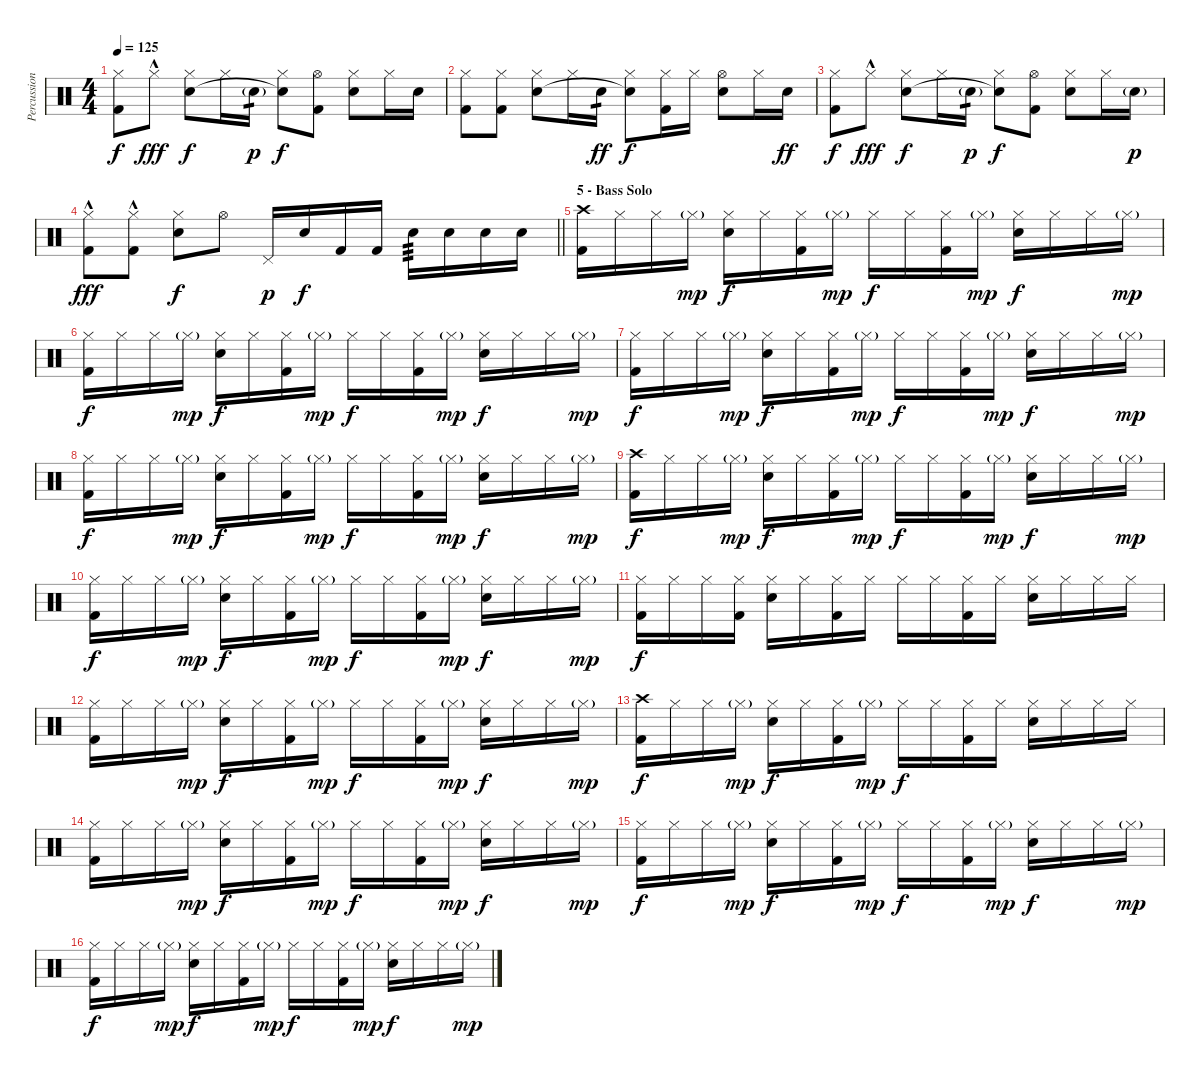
\track ("Percussion" "Percussion") {instrument percussion}
\staff {score}
\articulation defaults
\ts (4 4)
\tempo 125
\clef neutral
\ks c
("Hi-Hat (closed)" "Kick (hit) 2").8{dy f} "Hi-Hat (closed)"{hac}.8{dy fff} ("Hi-Hat (closed)" "Snare (hit) 2").8{dy f} "Hi-Hat (closed)".16 "Snare (hit) 2"{g}.16{tp 1 dy p} ("Hi-Hat (closed)" "Snare (hit)"{t}).8{dy f} ("Hi-Hat (open)" "Kick (hit) 2").8 ("Hi-Hat (closed)" "Snare (hit) 2").8 "Hi-Hat (closed)".16 "Snare (hit) 2".16 |
("Hi-Hat (closed)" "Kick (hit) 2").8 ("Hi-Hat (closed)" "Kick (hit) 2").8 ("Hi-Hat (closed)" "Snare (hit) 2").8 "Hi-Hat (closed)".16 "Snare (hit) 2".16{tp 1 dy ff} ("Hi-Hat (closed)" "Snare (hit)"{t}).8{dy f} ("Hi-Hat (closed)" "Kick (hit) 2").16 "Hi-Hat (closed)".16 ("Hi-Hat (open)" "Snare (hit) 2").8 "Hi-Hat (closed)".16 "Snare (hit) 2".16{dy ff} |
("Hi-Hat (closed)" "Kick (hit) 2").8{dy f} "Hi-Hat (closed)"{hac}.8{dy fff} ("Hi-Hat (closed)" "Snare (hit) 2").8{dy f} "Hi-Hat (closed)".16 "Snare (hit) 2"{g}.16{tp 1 dy p} ("Hi-Hat (closed)" "Snare (hit)"{t}).8{dy f} ("Hi-Hat (open)" "Kick (hit) 2").8 ("Hi-Hat (closed)" "Snare (hit) 2").8 "Hi-Hat (closed)".16 "Snare (hit) 2"{g}.16{dy p} |
\barLineRight lightlight
("Hi-Hat (closed)"{hac} "Kick (hit) 2").8{dy fff} ("Hi-Hat (closed)"{hac} "Kick (hit) 2").8 ("Hi-Hat (closed)" "Snare (hit) 2").8{dy f} "Hi-Hat (open)".8 "Pedal Hi-Hat (hit)".16{dy p} "Snare (hit) 2".16{dy f} "Kick (hit) 2".16 "Kick (hit) 2".16 "Snare (hit) 2".16{tp 3} "Snare (hit) 2".16 "Snare (hit) 2".16 "Snare (hit) 2".16 |
\section ("" "5 - Bass Solo")
("Crash high (hit)" "Kick (hit) 2").16 "Hi-Hat (closed)".16 "Hi-Hat (closed)".16 "Hi-Hat (closed)"{g}.16{dy mp} ("Hi-Hat (closed)" "Snare (hit) 2").16{dy f} "Hi-Hat (closed)".16 ("Hi-Hat (closed)" "Kick (hit) 2").16 "Hi-Hat (closed)"{g}.16{dy mp} "Hi-Hat (closed)".16{dy f} "Hi-Hat (closed)".16 ("Hi-Hat (closed)" "Kick (hit) 2").16 "Hi-Hat (closed)"{g}.16{dy mp} ("Hi-Hat (closed)" "Snare (hit) 2").16{dy f} "Hi-Hat (closed)".16 "Hi-Hat (closed)".16 "Hi-Hat (closed)"{g}.16{dy mp} |
("Hi-Hat (closed)" "Kick (hit) 2").16{dy f} "Hi-Hat (closed)".16 "Hi-Hat (closed)".16 "Hi-Hat (closed)"{g}.16{dy mp} ("Hi-Hat (closed)" "Snare (hit) 2").16{dy f} "Hi-Hat (closed)".16 ("Hi-Hat (closed)" "Kick (hit) 2").16 "Hi-Hat (closed)"{g}.16{dy mp} "Hi-Hat (closed)".16{dy f} "Hi-Hat (closed)".16 ("Hi-Hat (closed)" "Kick (hit) 2").16 "Hi-Hat (closed)"{g}.16{dy mp} ("Hi-Hat (closed)" "Snare (hit) 2").16{dy f} "Hi-Hat (closed)".16 "Hi-Hat (closed)".16 "Hi-Hat (closed)"{g}.16{dy mp} |
("Hi-Hat (closed)" "Kick (hit) 2").16{dy f} "Hi-Hat (closed)".16 "Hi-Hat (closed)".16 "Hi-Hat (closed)"{g}.16{dy mp} ("Hi-Hat (closed)" "Snare (hit) 2").16{dy f} "Hi-Hat (closed)".16 ("Hi-Hat (closed)" "Kick (hit) 2").16 "Hi-Hat (closed)"{g}.16{dy mp} "Hi-Hat (closed)".16{dy f} "Hi-Hat (closed)".16 ("Hi-Hat (closed)" "Kick (hit) 2").16 "Hi-Hat (closed)"{g}.16{dy mp} ("Hi-Hat (closed)" "Snare (hit) 2").16{dy f} "Hi-Hat (closed)".16 "Hi-Hat (closed)".16 "Hi-Hat (closed)"{g}.16{dy mp} |
("Hi-Hat (closed)" "Kick (hit) 2").16{dy f} "Hi-Hat (closed)".16 "Hi-Hat (closed)".16 "Hi-Hat (closed)"{g}.16{dy mp} ("Hi-Hat (closed)" "Snare (hit) 2").16{dy f} "Hi-Hat (closed)".16 ("Hi-Hat (closed)" "Kick (hit) 2").16 "Hi-Hat (closed)"{g}.16{dy mp} "Hi-Hat (closed)".16{dy f} "Hi-Hat (closed)".16 ("Hi-Hat (closed)" "Kick (hit) 2").16 "Hi-Hat (closed)"{g}.16{dy mp} ("Hi-Hat (closed)" "Snare (hit) 2").16{dy f} "Hi-Hat (closed)".16 "Hi-Hat (closed)".16 "Hi-Hat (closed)"{g}.16{dy mp} |
("Crash high (hit)" "Kick (hit) 2").16{dy f} "Hi-Hat (closed)".16 "Hi-Hat (closed)".16 "Hi-Hat (closed)"{g}.16{dy mp} ("Hi-Hat (closed)" "Snare (hit) 2").16{dy f} "Hi-Hat (closed)".16 ("Hi-Hat (closed)" "Kick (hit) 2").16 "Hi-Hat (closed)"{g}.16{dy mp} "Hi-Hat (closed)".16{dy f} "Hi-Hat (closed)".16 ("Hi-Hat (closed)" "Kick (hit) 2").16 "Hi-Hat (closed)"{g}.16{dy mp} ("Hi-Hat (closed)" "Snare (hit) 2").16{dy f} "Hi-Hat (closed)".16 "Hi-Hat (closed)".16 "Hi-Hat (closed)"{g}.16{dy mp} |
("Hi-Hat (closed)" "Kick (hit) 2").16{dy f} "Hi-Hat (closed)".16 "Hi-Hat (closed)".16 "Hi-Hat (closed)"{g}.16{dy mp} ("Hi-Hat (closed)" "Snare (hit) 2").16{dy f} "Hi-Hat (closed)".16 ("Hi-Hat (closed)" "Kick (hit) 2").16 "Hi-Hat (closed)"{g}.16{dy mp} "Hi-Hat (closed)".16{dy f} "Hi-Hat (closed)".16 ("Hi-Hat (closed)" "Kick (hit) 2").16 "Hi-Hat (closed)"{g}.16{dy mp} ("Hi-Hat (closed)" "Snare (hit) 2").16{dy f} "Hi-Hat (closed)".16 "Hi-Hat (closed)".16 "Hi-Hat (closed)"{g}.16{dy mp} |
("Hi-Hat (closed)" "Kick (hit) 2").16{dy f} "Hi-Hat (closed)".16 "Hi-Hat (closed)".16 ("Hi-Hat (closed)" "Kick (hit) 2").16 ("Hi-Hat (closed)" "Snare (hit) 2").16 "Hi-Hat (closed)".16 ("Hi-Hat (closed)" "Kick (hit) 2").16 "Hi-Hat (closed)".16 "Hi-Hat (closed)".16 "Hi-Hat (closed)".16 ("Hi-Hat (closed)" "Kick (hit) 2").16 "Hi-Hat (closed)".16 ("Hi-Hat (closed)" "Snare (hit) 2").16 "Hi-Hat (closed)".16 "Hi-Hat (closed)".16 "Hi-Hat (closed)".16 |
("Hi-Hat (closed)" "Kick (hit) 2").16 "Hi-Hat (closed)".16 "Hi-Hat (closed)".16 "Hi-Hat (closed)"{g}.16{dy mp} ("Hi-Hat (closed)" "Snare (hit) 2").16{dy f} "Hi-Hat (closed)".16 ("Hi-Hat (closed)" "Kick (hit) 2").16 "Hi-Hat (closed)"{g}.16{dy mp} "Hi-Hat (closed)".16{dy f} "Hi-Hat (closed)".16 ("Hi-Hat (closed)" "Kick (hit) 2").16 "Hi-Hat (closed)"{g}.16{dy mp} ("Hi-Hat (closed)" "Snare (hit) 2").16{dy f} "Hi-Hat (closed)".16 "Hi-Hat (closed)".16 "Hi-Hat (closed)"{g}.16{dy mp} |
("Crash high (hit)" "Kick (hit) 2").16{dy f} "Hi-Hat (closed)".16 "Hi-Hat (closed)".16 "Hi-Hat (closed)"{g}.16{dy mp} ("Hi-Hat (closed)" "Snare (hit) 2").16{dy f} "Hi-Hat (closed)".16 ("Hi-Hat (closed)" "Kick (hit) 2").16 "Hi-Hat (closed)"{g}.16{dy mp} "Hi-Hat (closed)".16{dy f} "Hi-Hat (closed)".16 ("Hi-Hat (closed)" "Kick (hit) 2").16 "Hi-Hat (closed)".16 ("Hi-Hat (closed)" "Snare (hit) 2").16 "Hi-Hat (closed)".16 "Hi-Hat (closed)".16 "Hi-Hat (closed)".16 |
("Hi-Hat (closed)" "Kick (hit) 2").16 "Hi-Hat (closed)".16 "Hi-Hat (closed)".16 "Hi-Hat (closed)"{g}.16{dy mp} ("Hi-Hat (closed)" "Snare (hit) 2").16{dy f} "Hi-Hat (closed)".16 ("Hi-Hat (closed)" "Kick (hit) 2").16 "Hi-Hat (closed)"{g}.16{dy mp} "Hi-Hat (closed)".16{dy f} "Hi-Hat (closed)".16 ("Hi-Hat (closed)" "Kick (hit) 2").16 "Hi-Hat (closed)"{g}.16{dy mp} ("Hi-Hat (closed)" "Snare (hit) 2").16{dy f} "Hi-Hat (closed)".16 "Hi-Hat (closed)".16 "Hi-Hat (closed)"{g}.16{dy mp} |
("Hi-Hat (closed)" "Kick (hit) 2").16{dy f} "Hi-Hat (closed)".16 "Hi-Hat (closed)".16 "Hi-Hat (closed)"{g}.16{dy mp} ("Hi-Hat (closed)" "Snare (hit) 2").16{dy f} "Hi-Hat (closed)".16 ("Hi-Hat (closed)" "Kick (hit) 2").16 "Hi-Hat (closed)"{g}.16{dy mp} "Hi-Hat (closed)".16{dy f} "Hi-Hat (closed)".16 ("Hi-Hat (closed)" "Kick (hit) 2").16 "Hi-Hat (closed)"{g}.16{dy mp} ("Hi-Hat (closed)" "Snare (hit) 2").16{dy f} "Hi-Hat (closed)".16 "Hi-Hat (closed)".16 "Hi-Hat (closed)"{g}.16{dy mp} |
("Hi-Hat (closed)" "Kick (hit) 2").16{dy f} "Hi-Hat (closed)".16 "Hi-Hat (closed)".16 "Hi-Hat (closed)"{g}.16{dy mp} ("Hi-Hat (closed)" "Snare (hit) 2").16{dy f} "Hi-Hat (closed)".16 ("Hi-Hat (closed)" "Kick (hit) 2").16 "Hi-Hat (closed)"{g}.16{dy mp} "Hi-Hat (closed)".16{dy f} "Hi-Hat (closed)".16 ("Hi-Hat (closed)" "Kick (hit) 2").16 "Hi-Hat (closed)"{g}.16{dy mp} ("Hi-Hat (closed)" "Snare (hit) 2").16{dy f} "Hi-Hat (closed)".16 "Hi-Hat (closed)".16 "Hi-Hat (closed)"{g}.16{dy mp}
